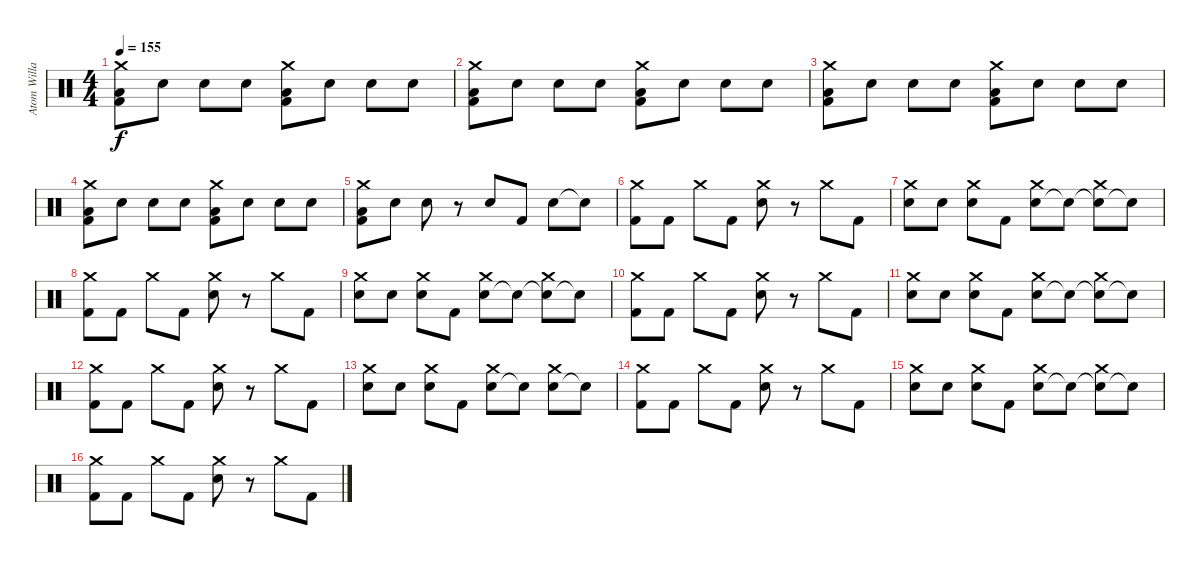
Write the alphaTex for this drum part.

\track ("Atom Willard Drums" "Atom Willa") {instrument percussion}
\staff {score}
\articulation defaults
\ts (4 4)
\tempo 155
\clef neutral
\ks c
("Crash medium (hit)" "Kick (hit) 2" "Low Tom (hit)").8{dy f} "Snare (hit)".8 "Snare (hit)".8 "Snare (hit)".8 ("Crash medium (hit)" "Kick (hit) 2" "Low Tom (hit)").8 "Snare (hit)".8 "Snare (hit)".8 "Snare (hit)".8 |
("Crash medium (hit)" "Kick (hit) 2" "Low Tom (hit)").8 "Snare (hit)".8 "Snare (hit)".8 "Snare (hit)".8 ("Crash medium (hit)" "Kick (hit) 2" "Low Tom (hit)").8 "Snare (hit)".8 "Snare (hit)".8 "Snare (hit)".8 |
("Crash medium (hit)" "Kick (hit) 2" "Low Tom (hit)").8 "Snare (hit)".8 "Snare (hit)".8 "Snare (hit)".8 ("Crash medium (hit)" "Kick (hit) 2" "Low Tom (hit)").8 "Snare (hit)".8 "Snare (hit)".8 "Snare (hit)".8 |
("Crash medium (hit)" "Kick (hit) 2" "Low Tom (hit)").8 "Snare (hit)".8 "Snare (hit)".8 "Snare (hit)".8 ("Crash medium (hit)" "Kick (hit) 2" "Low Tom (hit)").8 "Snare (hit)".8 "Snare (hit)".8 "Snare (hit)".8 |
("Crash medium (hit)" "Kick (hit) 2" "Low Tom (hit)").8 "Snare (hit)".8 "Snare (hit)".8 r.8 "Electric Snare (hit)".8 "Kick (hit) 2".8 "Electric Snare (hit)".8 "Snare (hit)"{t}.8 |
("Kick (hit) 2" "Crash medium (hit)").8 "Kick (hit) 2".8 "Crash medium (hit)".8 "Kick (hit) 2".8 ("Electric Snare (hit)" "Crash medium (hit)").8 r.8 "Crash medium (hit)".8 "Kick (hit) 2".8 |
("Snare (hit)" "Crash medium (hit)").8 "Electric Snare (hit)".8 ("Snare (hit)" "Crash medium (hit)").8 "Kick (hit) 2".8 ("Electric Snare (hit)" "Crash medium (hit)").8 "Snare (hit)"{t}.8 ("Snare (hit)"{t} "Crash medium (hit)").8 "Snare (hit)"{t}.8 |
("Kick (hit) 2" "Crash medium (hit)").8 "Kick (hit) 2".8 "Crash medium (hit)".8 "Kick (hit) 2".8 ("Electric Snare (hit)" "Crash medium (hit)").8 r.8 "Crash medium (hit)".8 "Kick (hit) 2".8 |
("Snare (hit)" "Crash medium (hit)").8 "Electric Snare (hit)".8 ("Snare (hit)" "Crash medium (hit)").8 "Kick (hit) 2".8 ("Electric Snare (hit)" "Crash medium (hit)").8 "Snare (hit)"{t}.8 ("Snare (hit)"{t} "Crash medium (hit)").8 "Snare (hit)"{t}.8 |
("Kick (hit) 2" "Crash medium (hit)").8 "Kick (hit) 2".8 "Crash medium (hit)".8 "Kick (hit) 2".8 ("Electric Snare (hit)" "Crash medium (hit)").8 r.8 "Crash medium (hit)".8 "Kick (hit) 2".8 |
("Snare (hit)" "Crash medium (hit)").8 "Electric Snare (hit)".8 ("Snare (hit)" "Crash medium (hit)").8 "Kick (hit) 2".8 ("Electric Snare (hit)" "Crash medium (hit)").8 "Snare (hit)"{t}.8 ("Snare (hit)"{t} "Crash medium (hit)").8 "Snare (hit)"{t}.8 |
("Kick (hit) 2" "Crash medium (hit)").8 "Kick (hit) 2".8 "Crash medium (hit)".8 "Kick (hit) 2".8 ("Electric Snare (hit)" "Crash medium (hit)").8 r.8 "Crash medium (hit)".8 "Kick (hit) 2".8 |
("Snare (hit)" "Crash medium (hit)").8 "Electric Snare (hit)".8 ("Snare (hit)" "Crash medium (hit)").8 "Kick (hit) 2".8 ("Electric Snare (hit)" "Crash medium (hit)").8 "Snare (hit)"{t}.8 ("Electric Snare (hit)" "Crash medium (hit)").8 "Snare (hit)"{t}.8 |
("Kick (hit) 2" "Crash medium (hit)").8 "Kick (hit) 2".8 "Crash medium (hit)".8 "Kick (hit) 2".8 ("Electric Snare (hit)" "Crash medium (hit)").8 r.8 "Crash medium (hit)".8 "Kick (hit) 2".8 |
("Snare (hit)" "Crash medium (hit)").8 "Electric Snare (hit)".8 ("Snare (hit)" "Crash medium (hit)").8 "Kick (hit) 2".8 ("Electric Snare (hit)" "Crash medium (hit)").8 "Snare (hit)"{t}.8 ("Snare (hit)"{t} "Crash medium (hit)").8 "Snare (hit)"{t}.8 |
("Kick (hit) 2" "Crash medium (hit)").8 "Kick (hit) 2".8 "Crash medium (hit)".8 "Kick (hit) 2".8 ("Electric Snare (hit)" "Crash medium (hit)").8 r.8 "Crash medium (hit)".8 "Kick (hit) 2".8
